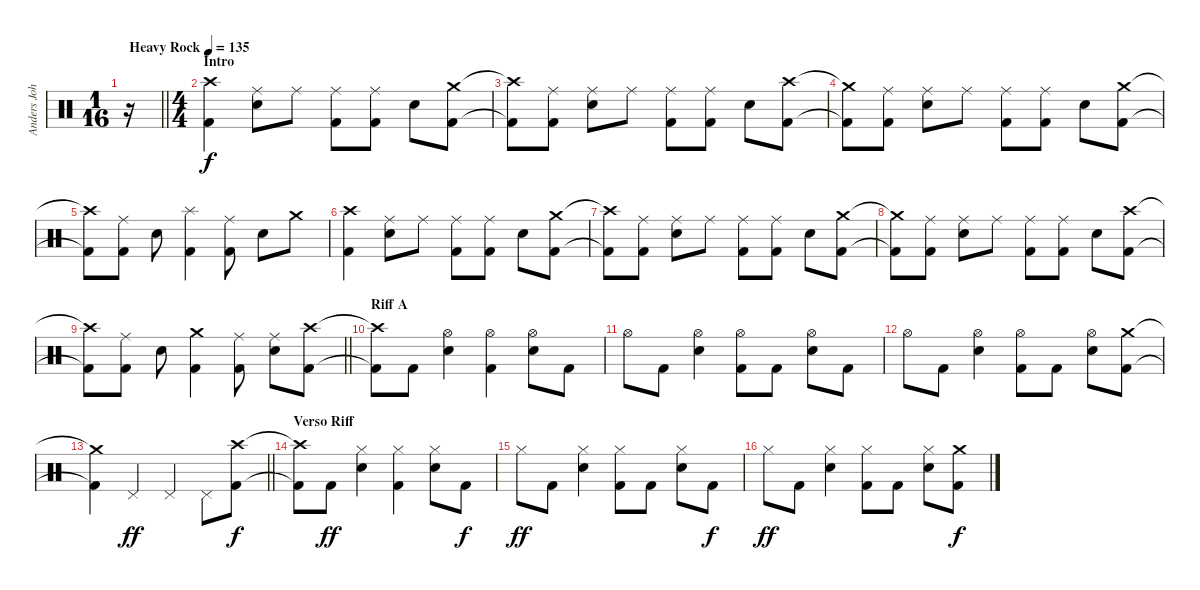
\track ("Anders Johansson" "Anders Joh") {instrument percussion}
\staff {score}
\articulation defaults
\ts (1 16)
\tempo (135 "Heavy Rock")
\clef neutral
\barLineRight lightlight
\ks c
r.16{dy f} |
\ts (4 4)
\section ("" "Intro")
("Crash high (hit)" "Kick (hit) 2").4 ("Ride (middle)" "Snare (hit) 2").8 "Ride (middle)".8 ("Ride (middle)" "Kick (hit) 2").8 ("Ride (middle)" "Kick (hit) 2").8 "Snare (hit) 2".8 ("Crash medium (hit)" "Kick (hit) 2").8 |
("Crash high (hit)"{t} "Kick (hit) 2"{t}).8 ("Ride (middle)" "Kick (hit) 2").8 ("Ride (middle)" "Snare (hit) 2").8 "Ride (middle)".8 ("Ride (middle)" "Kick (hit) 2").8 ("Ride (middle)" "Kick (hit) 2").8 "Snare (hit) 2".8 ("Crash high (hit)" "Kick (hit) 2").8 |
("Crash medium (hit)"{t} "Kick (hit) 2"{t}).8 ("Ride (middle)" "Kick (hit) 2").8 ("Ride (middle)" "Snare (hit) 2").8 "Ride (middle)".8 ("Ride (middle)" "Kick (hit) 2").8 ("Ride (middle)" "Kick (hit) 2").8 "Snare (hit) 2".8 ("Crash medium (hit)" "Kick (hit) 2").8 |
("Crash high (hit)"{t} "Kick (hit) 2"{t}).8 ("Ride (middle)" "Kick (hit) 2").8 "Snare (hit) 2".8 ("Splash (hit)" "Kick (hit) 2").4 ("Ride (middle)" "Kick (hit) 2").8 "Snare (hit) 2".8 "Crash medium (hit)".8 |
("Crash high (hit)" "Kick (hit) 2").4 ("Ride (middle)" "Snare (hit) 2").8 "Ride (middle)".8 ("Ride (middle)" "Kick (hit) 2").8 ("Ride (middle)" "Kick (hit) 2").8 "Snare (hit) 2".8 ("Crash medium (hit)" "Kick (hit) 2").8 |
("Crash high (hit)"{t} "Kick (hit) 2"{t}).8 ("Ride (middle)" "Kick (hit) 2").8 ("Ride (middle)" "Snare (hit) 2").8 "Ride (middle)".8 ("Ride (middle)" "Kick (hit) 2").8 ("Ride (middle)" "Kick (hit) 2").8 "Snare (hit) 2".8 ("Crash medium (hit)" "Kick (hit) 2").8 |
("Crash medium (hit)"{t} "Kick (hit) 2"{t}).8 ("Ride (middle)" "Kick (hit) 2").8 ("Ride (middle)" "Snare (hit) 2").8 "Ride (middle)".8 ("Ride (middle)" "Kick (hit) 2").8 ("Ride (middle)" "Kick (hit) 2").8 "Snare (hit) 2".8 ("Crash high (hit)" "Kick (hit) 2").8 |
\barLineRight lightlight
("Crash high (hit)"{t} "Kick (hit) 2"{t}).8 ("Ride (middle)" "Kick (hit) 2").8 "Snare (hit) 2".8 ("Crash medium (hit)" "Kick (hit) 2").4 ("Ride (middle)" "Kick (hit) 2").8 ("Ride (middle)" "Snare (hit) 2").8 ("Crash high (hit)" "Kick (hit) 2").8 |
\section ("" "Riff A")
("Crash high (hit)"{t} "Kick (hit) 2"{t}).8 "Kick (hit) 2".8 ("Hi-Hat (open)" "Snare (hit) 2").4 ("Hi-Hat (open)" "Kick (hit) 2").4 ("Hi-Hat (open)" "Snare (hit) 2").8 "Kick (hit) 2".8 |
"Hi-Hat (open)".8 "Kick (hit) 2".8 ("Hi-Hat (open)" "Snare (hit) 2").4 ("Hi-Hat (open)" "Kick (hit) 2").8 "Kick (hit) 2".8 ("Hi-Hat (open)" "Snare (hit) 2").8 "Kick (hit) 2".8 |
"Hi-Hat (open)".8 "Kick (hit) 2".8 ("Hi-Hat (open)" "Snare (hit) 2").4 ("Hi-Hat (open)" "Kick (hit) 2").8 "Kick (hit) 2".8 ("Hi-Hat (open)" "Snare (hit) 2").8 ("Crash medium (hit)" "Kick (hit) 2").8 |
\barLineRight lightlight
("Crash medium (hit)"{t} "Kick (hit) 2"{t}).4 "Pedal Hi-Hat (hit)".4{dy ff} "Pedal Hi-Hat (hit)".4 "Pedal Hi-Hat (hit)".8 ("Crash high (hit)" "Kick (hit) 2").8{dy f} |
\section ("" "Verso Riff")
("Crash high (hit)"{t} "Kick (hit) 2"{t}).8 "Kick (hit) 2".8{dy ff} ("Hi-Hat (closed)" "Snare (hit) 2").4 ("Hi-Hat (closed)" "Kick (hit) 2").4 ("Hi-Hat (closed)" "Snare (hit) 2").8 "Kick (hit) 2".8{dy f} |
"Hi-Hat (closed)".8{dy ff} "Kick (hit) 2".8 ("Hi-Hat (closed)" "Snare (hit) 2").4 ("Hi-Hat (closed)" "Kick (hit) 2").8 "Kick (hit) 2".8 ("Hi-Hat (closed)" "Snare (hit) 2").8 "Kick (hit) 2".8{dy f} |
"Hi-Hat (closed)".8{dy ff} "Kick (hit) 2".8 ("Hi-Hat (closed)" "Snare (hit) 2").4 ("Hi-Hat (closed)" "Kick (hit) 2").8 "Kick (hit) 2".8 ("Hi-Hat (closed)" "Snare (hit) 2").8 ("Crash medium (hit)" "Kick (hit) 2").8{dy f}
